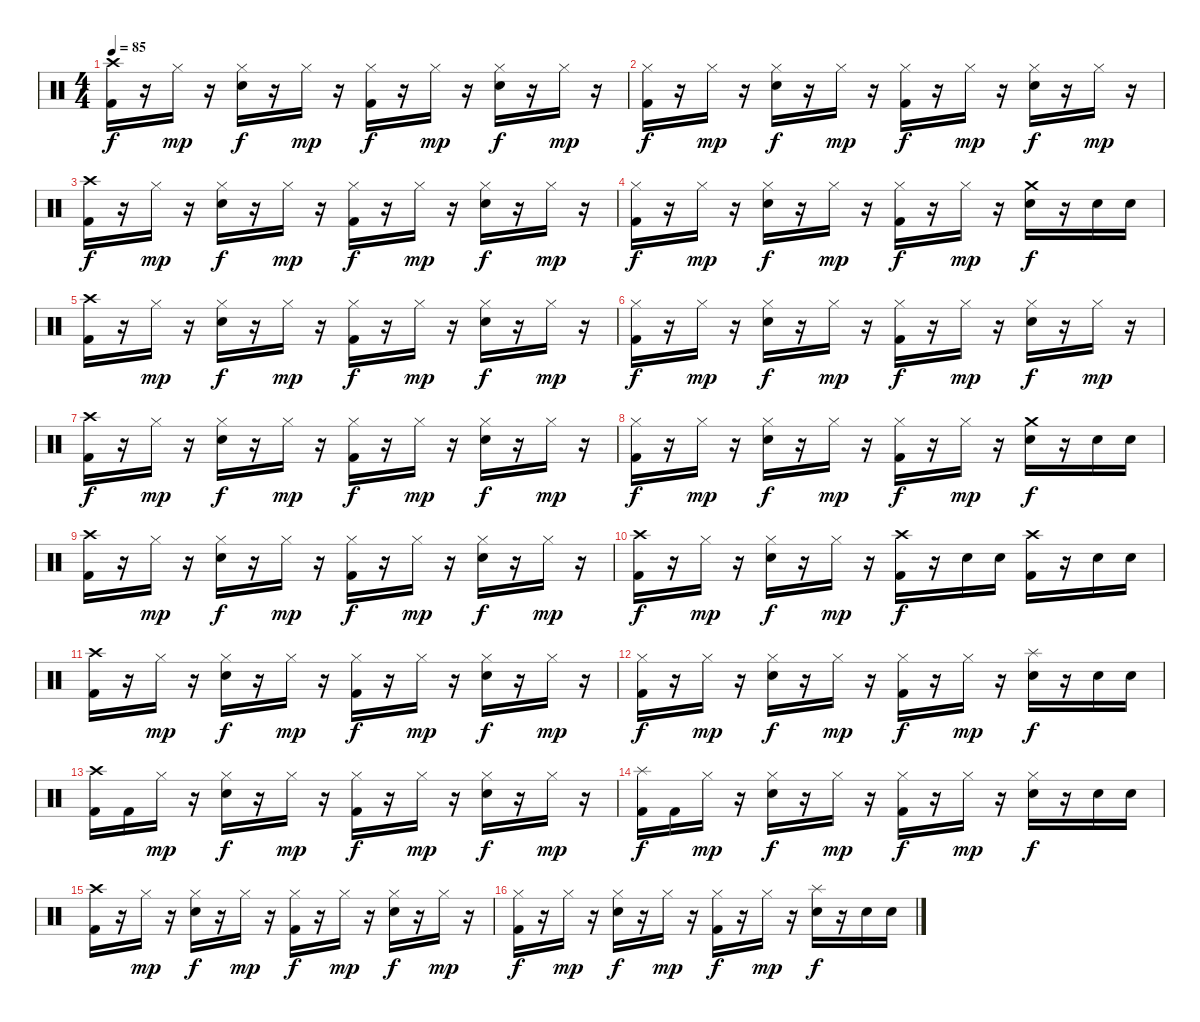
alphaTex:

\track ("              Stefff" "          ") {instrument percussion}
\staff {score}
\articulation defaults
\ts (4 4)
\tempo 85
\clef neutral
\ks c
("Kick (hit) 2" "Crash high (hit)").16{dy f} r.16 "Hi-Hat (closed)".16{dy mp} r.16 ("Hi-Hat (closed)" "Snare (hit) 2").16{dy f} r.16 "Hi-Hat (closed)".16{dy mp} r.16 ("Hi-Hat (closed)" "Kick (hit) 2").16{dy f} r.16 "Hi-Hat (closed)".16{dy mp} r.16 ("Hi-Hat (closed)" "Snare (hit) 2").16{dy f} r.16 "Hi-Hat (closed)".16{dy mp} r.16 |
("Kick (hit) 2" "Hi-Hat (closed)").16{dy f} r.16 "Hi-Hat (closed)".16{dy mp} r.16 ("Hi-Hat (closed)" "Snare (hit) 2").16{dy f} r.16 "Hi-Hat (closed)".16{dy mp} r.16 ("Hi-Hat (closed)" "Kick (hit) 2").16{dy f} r.16 "Hi-Hat (closed)".16{dy mp} r.16 ("Hi-Hat (closed)" "Snare (hit) 2").16{dy f} r.16 "Hi-Hat (closed)".16{dy mp} r.16 |
("Kick (hit) 2" "Crash high (hit)").16{dy f} r.16 "Hi-Hat (closed)".16{dy mp} r.16 ("Hi-Hat (closed)" "Snare (hit) 2").16{dy f} r.16 "Hi-Hat (closed)".16{dy mp} r.16 ("Hi-Hat (closed)" "Kick (hit) 2").16{dy f} r.16 "Hi-Hat (closed)".16{dy mp} r.16 ("Hi-Hat (closed)" "Snare (hit) 2").16{dy f} r.16 "Hi-Hat (closed)".16{dy mp} r.16 |
("Kick (hit) 2" "Hi-Hat (closed)").16{dy f} r.16 "Hi-Hat (closed)".16{dy mp} r.16 ("Hi-Hat (closed)" "Snare (hit) 2").16{dy f} r.16 "Hi-Hat (closed)".16{dy mp} r.16 ("Hi-Hat (closed)" "Kick (hit) 2").16{dy f} r.16 "Hi-Hat (closed)".16{dy mp} r.16 ("Crash medium (hit)" "Snare (hit) 2").16{dy f} r.16 "Snare (hit) 2".16 "Snare (hit) 2".16 |
("Kick (hit) 2" "Crash high (hit)").16 r.16 "Hi-Hat (closed)".16{dy mp} r.16 ("Hi-Hat (closed)" "Snare (hit) 2").16{dy f} r.16 "Hi-Hat (closed)".16{dy mp} r.16 ("Hi-Hat (closed)" "Kick (hit) 2").16{dy f} r.16 "Hi-Hat (closed)".16{dy mp} r.16 ("Hi-Hat (closed)" "Snare (hit) 2").16{dy f} r.16 "Hi-Hat (closed)".16{dy mp} r.16 |
("Kick (hit) 2" "Hi-Hat (closed)").16{dy f} r.16 "Hi-Hat (closed)".16{dy mp} r.16 ("Hi-Hat (closed)" "Snare (hit) 2").16{dy f} r.16 "Hi-Hat (closed)".16{dy mp} r.16 ("Hi-Hat (closed)" "Kick (hit) 2").16{dy f} r.16 "Hi-Hat (closed)".16{dy mp} r.16 ("Hi-Hat (closed)" "Snare (hit) 2").16{dy f} r.16 "Hi-Hat (closed)".16{dy mp} r.16 |
("Kick (hit) 2" "Crash high (hit)").16{dy f} r.16 "Hi-Hat (closed)".16{dy mp} r.16 ("Hi-Hat (closed)" "Snare (hit) 2").16{dy f} r.16 "Hi-Hat (closed)".16{dy mp} r.16 ("Hi-Hat (closed)" "Kick (hit) 2").16{dy f} r.16 "Hi-Hat (closed)".16{dy mp} r.16 ("Hi-Hat (closed)" "Snare (hit) 2").16{dy f} r.16 "Hi-Hat (closed)".16{dy mp} r.16 |
("Kick (hit) 2" "Hi-Hat (closed)").16{dy f} r.16 "Hi-Hat (closed)".16{dy mp} r.16 ("Hi-Hat (closed)" "Snare (hit) 2").16{dy f} r.16 "Hi-Hat (closed)".16{dy mp} r.16 ("Hi-Hat (closed)" "Kick (hit) 2").16{dy f} r.16 "Hi-Hat (closed)".16{dy mp} r.16 ("Crash medium (hit)" "Snare (hit) 2").16{dy f} r.16 "Snare (hit) 2".16 "Snare (hit) 2".16 |
("Kick (hit) 2" "Crash high (hit)").16 r.16 "Hi-Hat (closed)".16{dy mp} r.16 ("Hi-Hat (closed)" "Snare (hit) 2").16{dy f} r.16 "Hi-Hat (closed)".16{dy mp} r.16 ("Hi-Hat (closed)" "Kick (hit) 2").16{dy f} r.16 "Hi-Hat (closed)".16{dy mp} r.16 ("Hi-Hat (closed)" "Snare (hit) 2").16{dy f} r.16 "Hi-Hat (closed)".16{dy mp} r.16 |
("Kick (hit) 2" "Crash high (hit)").16{dy f} r.16 "Hi-Hat (closed)".16{dy mp} r.16 ("Hi-Hat (closed)" "Snare (hit) 2").16{dy f} r.16 "Hi-Hat (closed)".16{dy mp} r.16 ("Crash high (hit)" "Kick (hit) 2").16{dy f} r.16 "Snare (hit) 2".16 "Snare (hit) 2".16 ("Crash high (hit)" "Kick (hit) 2").16 r.16 "Snare (hit) 2".16 "Snare (hit) 2".16 |
("Kick (hit) 2" "Crash high (hit)").16 r.16 "Hi-Hat (closed)".16{dy mp} r.16 ("Hi-Hat (closed)" "Snare (hit) 2").16{dy f} r.16 "Hi-Hat (closed)".16{dy mp} r.16 ("Hi-Hat (closed)" "Kick (hit) 2").16{dy f} r.16 "Hi-Hat (closed)".16{dy mp} r.16 ("Hi-Hat (closed)" "Snare (hit) 2").16{dy f} r.16 "Hi-Hat (closed)".16{dy mp} r.16 |
("Kick (hit) 2" "Hi-Hat (closed)").16{dy f} r.16 "Hi-Hat (closed)".16{dy mp} r.16 ("Hi-Hat (closed)" "Snare (hit) 2").16{dy f} r.16 "Hi-Hat (closed)".16{dy mp} r.16 ("Hi-Hat (closed)" "Kick (hit) 2").16{dy f} r.16 "Hi-Hat (closed)".16{dy mp} r.16 ("Splash (hit)" "Snare (hit) 2").16{dy f} r.16 "Snare (hit) 2".16 "Snare (hit) 2".16 |
("Kick (hit) 2" "Crash high (hit)").16 "Kick (hit) 2".16 "Hi-Hat (closed)".16{dy mp} r.16 ("Hi-Hat (closed)" "Snare (hit) 2").16{dy f} r.16 "Hi-Hat (closed)".16{dy mp} r.16 ("Hi-Hat (closed)" "Kick (hit) 2").16{dy f} r.16 "Hi-Hat (closed)".16{dy mp} r.16 ("Hi-Hat (closed)" "Snare (hit) 2").16{dy f} r.16 "Hi-Hat (closed)".16{dy mp} r.16 |
("Kick (hit) 2" "Splash (hit)").16{dy f} "Kick (hit) 2".16 "Hi-Hat (closed)".16{dy mp} r.16 ("Hi-Hat (closed)" "Snare (hit) 2").16{dy f} r.16 "Hi-Hat (closed)".16{dy mp} r.16 ("Hi-Hat (closed)" "Kick (hit) 2").16{dy f} r.16 "Hi-Hat (closed)".16{dy mp} r.16 ("Hi-Hat (closed)" "Snare (hit) 2").16{dy f} r.16 "Snare (hit) 2".16 "Snare (hit) 2".16 |
("Kick (hit) 2" "Crash high (hit)").16 r.16 "Hi-Hat (closed)".16{dy mp} r.16 ("Hi-Hat (closed)" "Snare (hit) 2").16{dy f} r.16 "Hi-Hat (closed)".16{dy mp} r.16 ("Hi-Hat (closed)" "Kick (hit) 2").16{dy f} r.16 "Hi-Hat (closed)".16{dy mp} r.16 ("Hi-Hat (closed)" "Snare (hit) 2").16{dy f} r.16 "Hi-Hat (closed)".16{dy mp} r.16 |
("Kick (hit) 2" "Hi-Hat (closed)").16{dy f} r.16 "Hi-Hat (closed)".16{dy mp} r.16 ("Hi-Hat (closed)" "Snare (hit) 2").16{dy f} r.16 "Hi-Hat (closed)".16{dy mp} r.16 ("Hi-Hat (closed)" "Kick (hit) 2").16{dy f} r.16 "Hi-Hat (closed)".16{dy mp} r.16 ("Splash (hit)" "Snare (hit) 2").16{dy f} r.16 "Snare (hit) 2".16 "Snare (hit) 2".16
